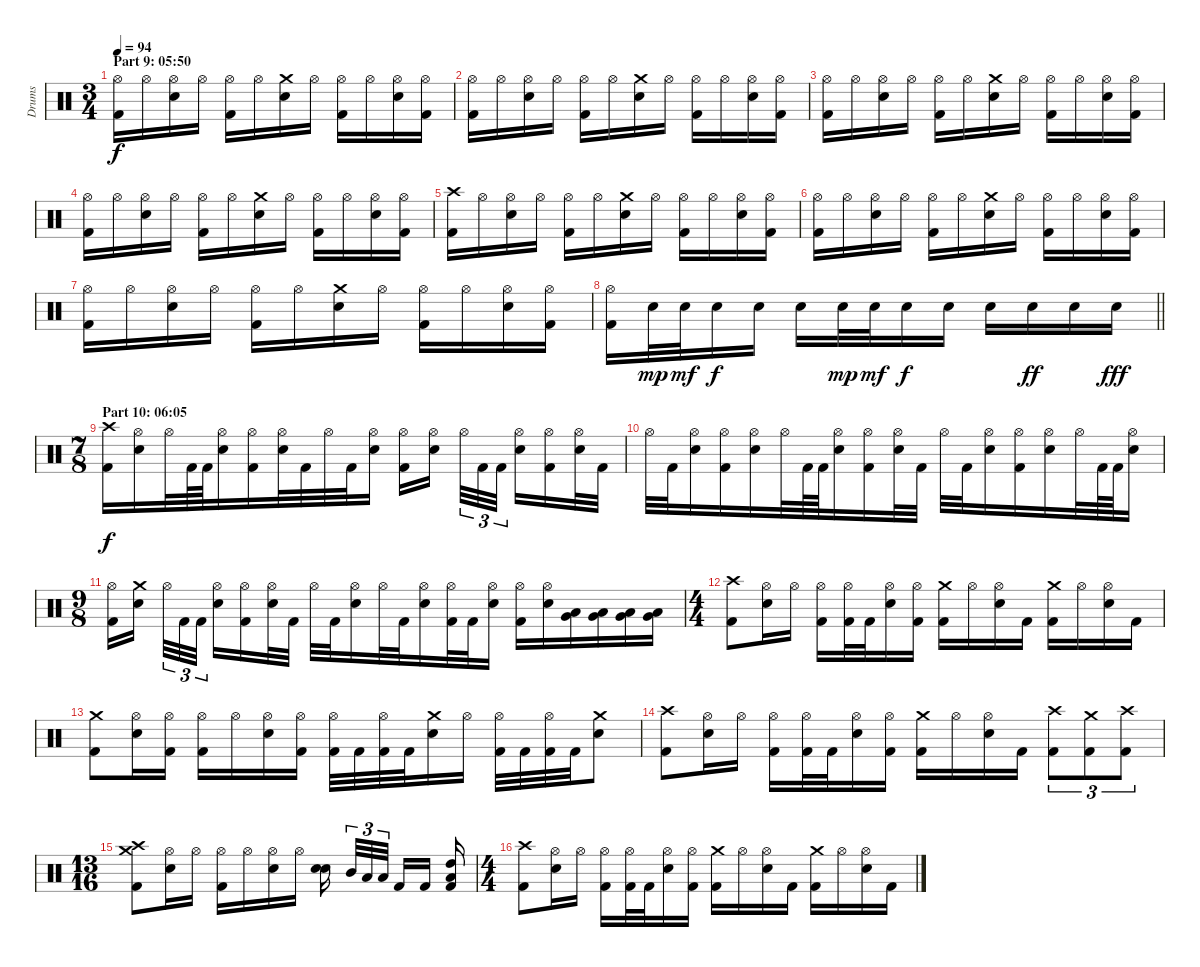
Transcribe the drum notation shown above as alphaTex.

\track ("Drums" "Drums") {instrument percussion}
\staff {score}
\articulation defaults
\ts (3 4)
\section ("" "Part 9: 05:50")
\tempo 94
\clef neutral
\ks c
("Hi-Hat (open)" "Kick (hit) 2").16{dy f} "Hi-Hat (open)".16 ("Hi-Hat (open)" "Electric Snare (hit)").16 "Hi-Hat (open)".16 ("Hi-Hat (open)" "Kick (hit) 2").16 "Hi-Hat (open)".16 ("Crash medium (hit)" "Electric Snare (hit)").16 "Hi-Hat (open)".16 ("Hi-Hat (open)" "Kick (hit) 2").16 "Hi-Hat (open)".16 ("Hi-Hat (open)" "Electric Snare (hit)").16 ("Hi-Hat (open)" "Kick (hit) 2").16 |
("Hi-Hat (open)" "Kick (hit) 2").16 "Hi-Hat (open)".16 ("Hi-Hat (open)" "Electric Snare (hit)").16 "Hi-Hat (open)".16 ("Hi-Hat (open)" "Kick (hit) 2").16 "Hi-Hat (open)".16 ("Crash medium (hit)" "Electric Snare (hit)").16 "Hi-Hat (open)".16 ("Hi-Hat (open)" "Kick (hit) 2").16 "Hi-Hat (open)".16 ("Hi-Hat (open)" "Electric Snare (hit)").16 ("Hi-Hat (open)" "Kick (hit) 2").16 |
("Hi-Hat (open)" "Kick (hit) 2").16 "Hi-Hat (open)".16 ("Hi-Hat (open)" "Electric Snare (hit)").16 "Hi-Hat (open)".16 ("Hi-Hat (open)" "Kick (hit) 2").16 "Hi-Hat (open)".16 ("Crash medium (hit)" "Electric Snare (hit)").16 "Hi-Hat (open)".16 ("Hi-Hat (open)" "Kick (hit) 2").16 "Hi-Hat (open)".16 ("Hi-Hat (open)" "Electric Snare (hit)").16 ("Hi-Hat (open)" "Kick (hit) 2").16 |
("Hi-Hat (open)" "Kick (hit) 2").16 "Hi-Hat (open)".16 ("Hi-Hat (open)" "Electric Snare (hit)").16 "Hi-Hat (open)".16 ("Hi-Hat (open)" "Kick (hit) 2").16 "Hi-Hat (open)".16 ("Crash medium (hit)" "Electric Snare (hit)").16 "Hi-Hat (open)".16 ("Hi-Hat (open)" "Kick (hit) 2").16 "Hi-Hat (open)".16 ("Hi-Hat (open)" "Electric Snare (hit)").16 ("Hi-Hat (open)" "Kick (hit) 2").16 |
("Crash high (hit)" "Kick (hit) 2").16 "Hi-Hat (open)".16 ("Hi-Hat (open)" "Electric Snare (hit)").16 "Hi-Hat (open)".16 ("Hi-Hat (open)" "Kick (hit) 2").16 "Hi-Hat (open)".16 ("Crash medium (hit)" "Electric Snare (hit)").16 "Hi-Hat (open)".16 ("Hi-Hat (open)" "Kick (hit) 2").16 "Hi-Hat (open)".16 ("Hi-Hat (open)" "Electric Snare (hit)").16 ("Hi-Hat (open)" "Kick (hit) 2").16 |
("Hi-Hat (open)" "Kick (hit) 2").16 "Hi-Hat (open)".16 ("Hi-Hat (open)" "Electric Snare (hit)").16 "Hi-Hat (open)".16 ("Hi-Hat (open)" "Kick (hit) 2").16 "Hi-Hat (open)".16 ("Crash medium (hit)" "Electric Snare (hit)").16 "Hi-Hat (open)".16 ("Hi-Hat (open)" "Kick (hit) 2").16 "Hi-Hat (open)".16 ("Hi-Hat (open)" "Electric Snare (hit)").16 ("Hi-Hat (open)" "Kick (hit) 2").16 |
("Hi-Hat (open)" "Kick (hit) 2").16 "Hi-Hat (open)".16 ("Hi-Hat (open)" "Electric Snare (hit)").16 "Hi-Hat (open)".16 ("Hi-Hat (open)" "Kick (hit) 2").16 "Hi-Hat (open)".16 ("Crash medium (hit)" "Electric Snare (hit)").16 "Hi-Hat (open)".16 ("Hi-Hat (open)" "Kick (hit) 2").16 "Hi-Hat (open)".16 ("Hi-Hat (open)" "Electric Snare (hit)").16 ("Hi-Hat (open)" "Kick (hit) 2").16 |
\barLineRight lightlight
("Hi-Hat (open)" "Kick (hit) 2").16 "Electric Snare (hit)".32{dy mp} "Electric Snare (hit)".32{dy mf} "Electric Snare (hit)".16{dy f} "Electric Snare (hit)".16 "Electric Snare (hit)".16 "Electric Snare (hit)".32{dy mp} "Electric Snare (hit)".32{dy mf} "Electric Snare (hit)".16{dy f} "Electric Snare (hit)".16 "Electric Snare (hit)".16 "Electric Snare (hit)".16{dy ff} "Electric Snare (hit)".16 "Electric Snare (hit)".16{dy fff} |
\ts (7 8)
\section ("" "Part 10: 06:05")
("Crash high (hit)" "Kick (hit) 2").16{dy f} ("Hi-Hat (open)" "Electric Snare (hit)").16 "Hi-Hat (open)".32 "Kick (hit) 2".64 "Kick (hit) 2".64 ("Hi-Hat (open)" "Electric Snare (hit)").16 ("Hi-Hat (open)" "Kick (hit) 2").16 ("Hi-Hat (open)" "Electric Snare (hit)").32 "Kick (hit) 2".32 "Hi-Hat (open)".32 "Kick (hit) 2".32 ("Hi-Hat (open)" "Electric Snare (hit)").16 ("Hi-Hat (open)" "Kick (hit) 2").16 ("Hi-Hat (open)" "Electric Snare (hit)").16 "Hi-Hat (open)".32{tu (3 2)} "Kick (hit) 2".32{tu (3 2)} "Kick (hit) 2".32{tu (3 2) beam splitsecondary} ("Hi-Hat (open)" "Electric Snare (hit)").16 ("Hi-Hat (open)" "Kick (hit) 2").16 ("Hi-Hat (open)" "Electric Snare (hit)").32 "Kick (hit) 2".32 |
"Hi-Hat (open)".32 "Kick (hit) 2".32 ("Hi-Hat (open)" "Electric Snare (hit)").16 ("Hi-Hat (open)" "Kick (hit) 2").16 ("Hi-Hat (open)" "Electric Snare (hit)").16 "Hi-Hat (open)".32 "Kick (hit) 2".64 "Kick (hit) 2".64 ("Hi-Hat (open)" "Electric Snare (hit)").16 ("Hi-Hat (open)" "Kick (hit) 2").16 ("Hi-Hat (open)" "Electric Snare (hit)").32 "Kick (hit) 2".32 "Hi-Hat (open)".32 "Kick (hit) 2".32 ("Hi-Hat (open)" "Electric Snare (hit)").16 ("Hi-Hat (open)" "Kick (hit) 2").16 ("Hi-Hat (open)" "Electric Snare (hit)").16 "Hi-Hat (open)".32 "Kick (hit) 2".64 "Kick (hit) 2".64 ("Hi-Hat (open)" "Electric Snare (hit)").16 |
\ts (9 8)
("Hi-Hat (open)" "Kick (hit) 2").16 ("Crash medium (hit)" "Electric Snare (hit)").16{beam splitsecondary} "Hi-Hat (open)".32{tu (3 2)} "Kick (hit) 2".32{tu (3 2)} "Kick (hit) 2".32{tu (3 2) beam splitsecondary} ("Hi-Hat (open)" "Electric Snare (hit)").16 ("Hi-Hat (open)" "Kick (hit) 2").16 ("Hi-Hat (open)" "Electric Snare (hit)").32 "Kick (hit) 2".32 "Hi-Hat (open)".32 "Kick (hit) 2".32 ("Hi-Hat (open)" "Electric Snare (hit)").16 "Hi-Hat (open)".32 "Kick (hit) 2".32 ("Hi-Hat (open)" "Electric Snare (hit)").16 ("Hi-Hat (open)" "Kick (hit) 2").32 "Kick (hit) 2".32 ("Hi-Hat (open)" "Electric Snare (hit)").16 ("Hi-Hat (open)" "Kick (hit) 2").16 ("Hi-Hat (open)" "Electric Snare (hit)").16 ("Very Low Tom (hit)" "Low Floor Tom (hit)").16 ("Very Low Tom (hit)" "Low Floor Tom (hit)").16 ("Very Low Tom (hit)" "Low Floor Tom (hit)").16 ("Very Low Tom (hit)" "Low Floor Tom (hit)").16 |
\ts (4 4)
("Crash high (hit)" "Kick (hit) 2").8 ("Hi-Hat (open)" "Electric Snare (hit)").16 "Hi-Hat (open)".16 ("Hi-Hat (open)" "Kick (hit) 2").16 ("Hi-Hat (open)" "Kick (hit) 2").32 "Kick (hit) 2".32 ("Hi-Hat (open)" "Electric Snare (hit)").16 ("Hi-Hat (open)" "Kick (hit) 2").16 ("Crash medium (hit)" "Kick (hit) 2").16 "Hi-Hat (open)".16 ("Hi-Hat (open)" "Electric Snare (hit)").16 "Kick (hit) 2".16 ("Crash medium (hit)" "Kick (hit) 2").16 "Hi-Hat (open)".16 ("Hi-Hat (open)" "Electric Snare (hit)").16 "Kick (hit) 2".16 |
("Crash medium (hit)" "Kick (hit) 2").8 ("Hi-Hat (open)" "Electric Snare (hit)").16 ("Hi-Hat (open)" "Kick (hit) 2").16 ("Hi-Hat (open)" "Kick (hit) 2").16 "Hi-Hat (open)".16 ("Hi-Hat (open)" "Electric Snare (hit)").16 ("Hi-Hat (open)" "Kick (hit) 2").16 ("Hi-Hat (open)" "Kick (hit) 2").32 "Kick (hit) 2".32 ("Hi-Hat (open)" "Kick (hit) 2").32 "Kick (hit) 2".32 ("Crash medium (hit)" "Electric Snare (hit)").16 "Hi-Hat (open)".16 ("Hi-Hat (open)" "Kick (hit) 2").32 "Kick (hit) 2".32 ("Hi-Hat (open)" "Kick (hit) 2").32 "Kick (hit) 2".32 ("Crash medium (hit)" "Electric Snare (hit)").8 |
("Crash high (hit)" "Kick (hit) 2").8 ("Hi-Hat (open)" "Electric Snare (hit)").16 "Hi-Hat (open)".16 ("Hi-Hat (open)" "Kick (hit) 2").16 ("Hi-Hat (open)" "Kick (hit) 2").32 "Kick (hit) 2".32 ("Hi-Hat (open)" "Electric Snare (hit)").16 ("Hi-Hat (open)" "Kick (hit) 2").16 ("Crash medium (hit)" "Kick (hit) 2").16 "Hi-Hat (open)".16 ("Hi-Hat (open)" "Electric Snare (hit)").16 "Kick (hit) 2".16 ("Crash high (hit)" "Kick (hit) 2").8{tu (3 2)} ("Crash medium (hit)" "Kick (hit) 2").8{tu (3 2)} ("Crash high (hit)" "Kick (hit) 2").8{tu (3 2)} |
\ts (13 16)
("Crash high (hit)" "Crash medium (hit)" "Kick (hit) 2").8 ("Hi-Hat (open)" "Electric Snare (hit)").16 "Hi-Hat (open)".16 ("Hi-Hat (open)" "Kick (hit) 2").16 "Hi-Hat (open)".16 ("Hi-Hat (open)" "Electric Snare (hit)").16 "Hi-Hat (open)".16 ("Electric Snare (hit)" "Electric Snare (hit)").16{bd 60} "Mid Tom (hit)".32{tu (3 2)} "Low Tom (hit)".32{tu (3 2)} "Low Floor Tom (hit)".32{tu (3 2)} "Kick (hit) 2".16 "Kick (hit) 2".16 ("High Tom (hit)" "Low Tom (hit)" "Kick (hit) 2").16 |
\ts (4 4)
("Crash high (hit)" "Kick (hit) 2").8 ("Hi-Hat (open)" "Electric Snare (hit)").16 "Hi-Hat (open)".16 ("Hi-Hat (open)" "Kick (hit) 2").16 ("Hi-Hat (open)" "Kick (hit) 2").32 "Kick (hit) 2".32 ("Hi-Hat (open)" "Electric Snare (hit)").16 ("Hi-Hat (open)" "Kick (hit) 2").16 ("Crash medium (hit)" "Kick (hit) 2").16 "Hi-Hat (open)".16 ("Hi-Hat (open)" "Electric Snare (hit)").16 "Kick (hit) 2".16 ("Crash medium (hit)" "Kick (hit) 2").16 "Hi-Hat (open)".16 ("Hi-Hat (open)" "Electric Snare (hit)").16 "Kick (hit) 2".16
